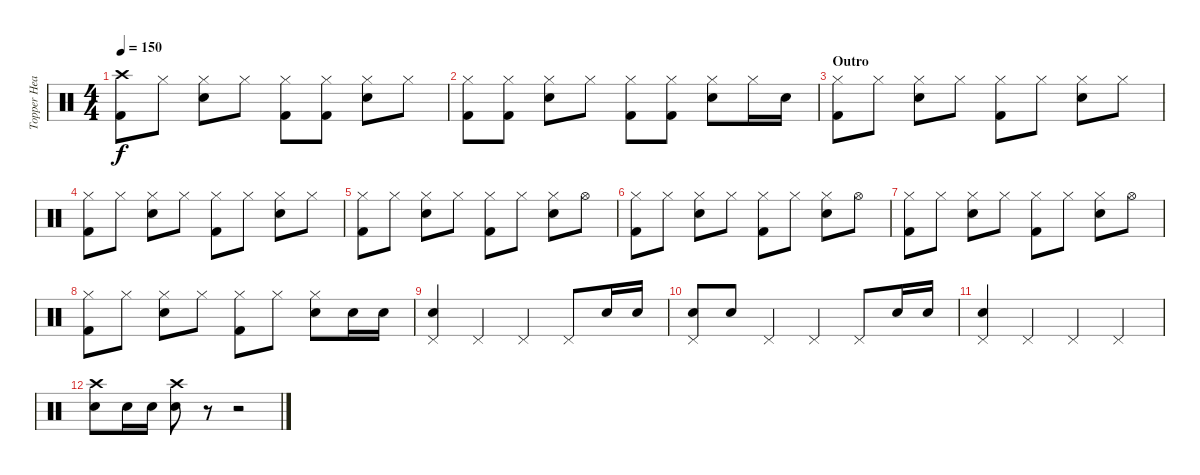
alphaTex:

\track ("Topper Headon - Drums" "Topper Hea") {instrument percussion}
\staff {score}
\articulation defaults
\ts (4 4)
\tempo 150
\clef neutral
\ks c
("Crash high (hit)" "Kick (hit) 2").8{dy f} "Hi-Hat (closed)".8 ("Hi-Hat (closed)" "Electric Snare (hit)").8 "Hi-Hat (closed)".8 ("Hi-Hat (closed)" "Kick (hit) 2").8 ("Hi-Hat (closed)" "Kick (hit) 2").8 ("Hi-Hat (closed)" "Electric Snare (hit)").8 "Hi-Hat (closed)".8 |
("Hi-Hat (closed)" "Kick (hit) 2").8 ("Hi-Hat (closed)" "Kick (hit) 2").8 ("Hi-Hat (closed)" "Electric Snare (hit)").8 "Hi-Hat (closed)".8 ("Hi-Hat (closed)" "Kick (hit) 2").8 ("Hi-Hat (closed)" "Kick (hit) 2").8 ("Hi-Hat (closed)" "Electric Snare (hit)").8 "Hi-Hat (closed)".16 "Electric Snare (hit)".16 |
\section ("" "Outro")
("Hi-Hat (closed)" "Kick (hit) 2").8 "Hi-Hat (closed)".8 ("Hi-Hat (closed)" "Electric Snare (hit)").8 "Hi-Hat (closed)".8 ("Hi-Hat (closed)" "Kick (hit) 2").8 "Hi-Hat (closed)".8 ("Hi-Hat (closed)" "Electric Snare (hit)").8 "Hi-Hat (closed)".8 |
("Hi-Hat (closed)" "Kick (hit) 2").8 "Hi-Hat (closed)".8 ("Hi-Hat (closed)" "Electric Snare (hit)").8 "Hi-Hat (closed)".8 ("Hi-Hat (closed)" "Kick (hit) 2").8 "Hi-Hat (closed)".8 ("Hi-Hat (closed)" "Electric Snare (hit)").8 "Hi-Hat (closed)".8 |
("Hi-Hat (closed)" "Kick (hit) 2").8 "Hi-Hat (closed)".8 ("Hi-Hat (closed)" "Electric Snare (hit)").8 "Hi-Hat (closed)".8 ("Hi-Hat (closed)" "Kick (hit) 2").8 "Hi-Hat (closed)".8 ("Hi-Hat (closed)" "Electric Snare (hit)").8 "Hi-Hat (open)".8 |
("Hi-Hat (closed)" "Kick (hit) 2").8 "Hi-Hat (closed)".8 ("Hi-Hat (closed)" "Electric Snare (hit)").8 "Hi-Hat (closed)".8 ("Hi-Hat (closed)" "Kick (hit) 2").8 "Hi-Hat (closed)".8 ("Hi-Hat (closed)" "Electric Snare (hit)").8 "Hi-Hat (open)".8 |
("Hi-Hat (closed)" "Kick (hit) 2").8 "Hi-Hat (closed)".8 ("Hi-Hat (closed)" "Electric Snare (hit)").8 "Hi-Hat (closed)".8 ("Hi-Hat (closed)" "Kick (hit) 2").8 "Hi-Hat (closed)".8 ("Hi-Hat (closed)" "Electric Snare (hit)").8 "Hi-Hat (open)".8 |
("Hi-Hat (closed)" "Kick (hit) 2").8 "Hi-Hat (closed)".8 ("Hi-Hat (closed)" "Electric Snare (hit)").8 "Hi-Hat (closed)".8 ("Hi-Hat (closed)" "Kick (hit) 2").8 "Hi-Hat (closed)".8 ("Hi-Hat (closed)" "Electric Snare (hit)").8 "Electric Snare (hit)".16 "Electric Snare (hit)".16 |
("Pedal Hi-Hat (hit)" "Electric Snare (hit)").4 "Pedal Hi-Hat (hit)".4 "Pedal Hi-Hat (hit)".4 "Pedal Hi-Hat (hit)".8 "Electric Snare (hit)".16 "Electric Snare (hit)".16 |
("Pedal Hi-Hat (hit)" "Electric Snare (hit)").8 "Electric Snare (hit)".8 "Pedal Hi-Hat (hit)".4 "Pedal Hi-Hat (hit)".4 "Pedal Hi-Hat (hit)".8 "Electric Snare (hit)".16 "Electric Snare (hit)".16 |
("Pedal Hi-Hat (hit)" "Electric Snare (hit)").4 "Pedal Hi-Hat (hit)".4 "Pedal Hi-Hat (hit)".4 "Pedal Hi-Hat (hit)".4 |
("Crash high (hit)" "Electric Snare (hit)").8 "Electric Snare (hit)".16 "Electric Snare (hit)".16 ("Crash high (hit)" "Electric Snare (hit)").8 r.8 r.2
